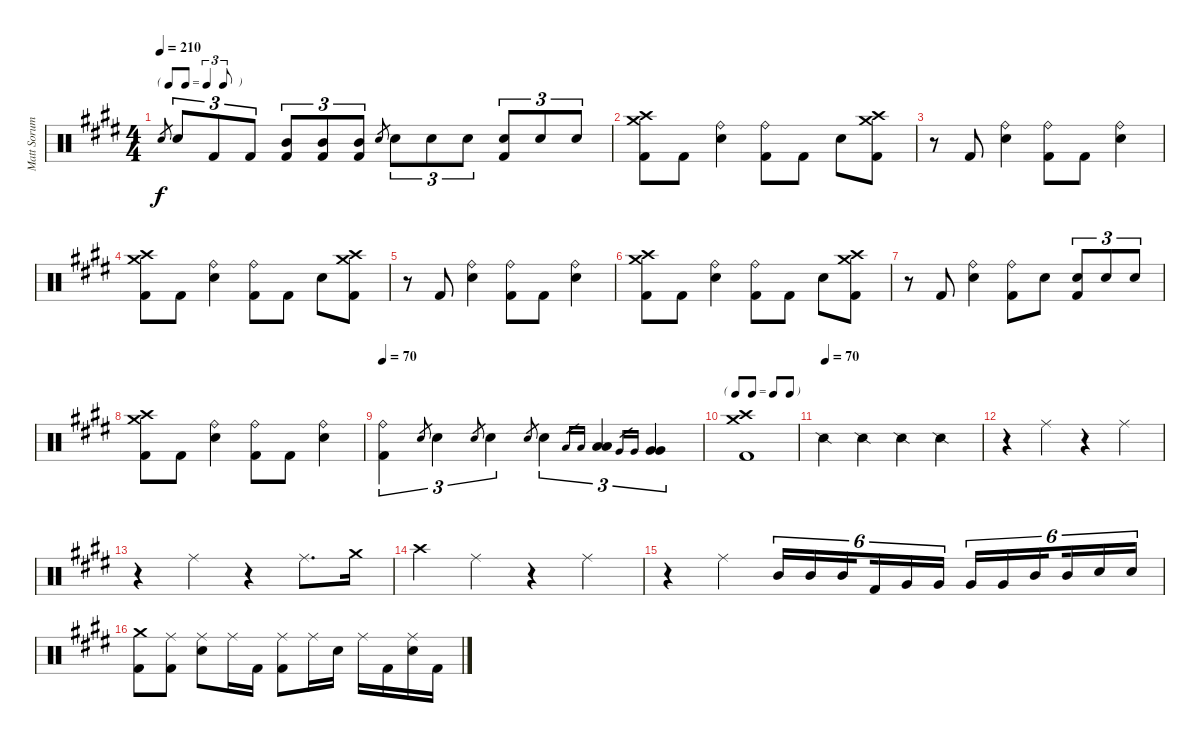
\track ("Matt Sorum - Drums" "Matt Sorum") {instrument percussion}
\staff {score}
\articulation defaults
\ts (4 4)
\tf triplet8th
\tempo 210
\clef neutral
\ks e "Snare (hit) 2".8{gr dy f} "Snare (hit) 2".8{tu (3 2)} "Kick (hit) 2".8{tu (3 2)} "Kick (hit) 2".8{tu (3 2)}
("Mid Tom (hit)" "Kick (hit) 2").8{tu (3 2)} ("Mid Tom (hit)" "Kick (hit) 2").8{tu (3 2)} ("Mid Tom (hit)" "Kick (hit) 2").8{tu (3 2)} "Snare (hit) 2".8{gr} "Snare (hit) 2".8{tu (3 2)} "Snare (hit) 2".8{tu (3 2)} "Snare (hit) 2".8{tu (3 2)} ("Snare (hit) 2" "Kick (hit) 2").8{tu (3 2)} "Snare (hit) 2".8{tu (3 2)} "Snare (hit) 2".8{tu (3 2)} |
("Crash medium (hit)" "Crash high (hit)" "Kick (hit) 2").8 "Kick (hit) 2".8 ("Ride (bell)" "Snare (hit) 2").4 ("Ride (bell)" "Kick (hit) 2").8 "Kick (hit) 2".8 "Snare (hit) 2".8 ("Crash medium (hit)" "Crash high (hit)" "Kick (hit) 2").8 |
r.8 "Kick (hit) 2".8 ("Ride (bell)" "Snare (hit) 2").4 ("Ride (bell)" "Kick (hit) 2").8 "Kick (hit) 2".8 ("Ride (bell)" "Snare (hit) 2").4 |
("Crash medium (hit)" "Crash high (hit)" "Kick (hit) 2").8 "Kick (hit) 2".8 ("Ride (bell)" "Snare (hit) 2").4 ("Ride (bell)" "Kick (hit) 2").8 "Kick (hit) 2".8 "Snare (hit) 2".8 ("Crash medium (hit)" "Crash high (hit)" "Kick (hit) 2").8 |
r.8 "Kick (hit) 2".8 ("Ride (bell)" "Snare (hit) 2").4 ("Ride (bell)" "Kick (hit) 2").8 "Kick (hit) 2".8 ("Ride (bell)" "Snare (hit) 2").4 |
("Crash medium (hit)" "Crash high (hit)" "Kick (hit) 2").8 "Kick (hit) 2".8 ("Ride (bell)" "Snare (hit) 2").4 ("Ride (bell)" "Kick (hit) 2").8 "Kick (hit) 2".8 "Snare (hit) 2".8 ("Crash medium (hit)" "Crash high (hit)" "Kick (hit) 2").8 |
r.8 "Kick (hit) 2".8 ("Ride (bell)" "Snare (hit) 2").4 ("Ride (bell)" "Kick (hit) 2").8 "Snare (hit) 2".8 ("Snare (hit) 2" "Kick (hit) 2").8{tu (3 2)} "Snare (hit) 2".8{tu (3 2)} "Snare (hit) 2".8{tu (3 2)} |
("Crash medium (hit)" "Crash high (hit)" "Kick (hit) 2").8 "Kick (hit) 2".8 ("Ride (bell)" "Snare (hit) 2").4 ("Ride (bell)" "Kick (hit) 2").8 "Kick (hit) 2".8 ("Ride (bell)" "Snare (hit) 2").4 |
\tempo 70
("Ride (bell)" "Kick (hit) 2").4{tu (3 2)} "Snare (hit) 2".8{gr} "Snare (hit) 2".4{tu (3 2)} "Snare (hit) 2".8{gr} "Snare (hit) 2".4{tu (3 2)} "Snare (hit) 2".8{gr} "Snare (hit) 2".4{tu (3 2)} "Low Tom (hit)".16{gr} "Low Tom (hit)".16{gr} ("Low Tom (hit)" "Low Tom (hit)").4{tu (3 2)} "Very Low Tom (hit)".16{gr} "Very Low Tom (hit)".16{gr} ("Very Low Tom (hit)" "Very Low Tom (hit)").4{tu (3 2)} |
\tf none
("Crash medium (hit)" "Crash high (hit)" "Kick (hit) 2").1 |
\tempo (70)
"Snare (side stick) 2".4 "Snare (side stick) 2".4 "Snare (side stick) 2".4 "Snare (side stick) 2".4 |
r.4 "Ride (middle)".4 r.4 "Ride (middle)".4 |
r.4 "Ride (middle)".4 r.4 "Ride (middle)".8{d} "Crash medium (hit)".16 |
"Crash high (hit)".4 "Ride (middle)".4 r.4 "Ride (middle)".4 |
r.4 "Ride (middle)".4 "Mid Tom (hit)".16{tu (6 4)} "Mid Tom (hit)".16{tu (6 4)} "Mid Tom (hit)".16{tu (6 4) beam splitsecondary} "Kick (hit) 2".16{tu (6 4)} "Very Low Tom (hit)".16{tu (6 4)} "Very Low Tom (hit)".16{tu (6 4)} "Very Low Tom (hit)".16{tu (6 4)} "Very Low Tom (hit)".16{tu (6 4)} "Mid Tom (hit)".16{tu (6 4) beam splitsecondary} "Mid Tom (hit)".16{tu (6 4)} "Snare (hit) 2".16{tu (6 4)} "Snare (hit) 2".16{tu (6 4)} |
("Crash medium (hit)" "Kick (hit) 2").8 ("Ride (middle)" "Kick (hit) 2").8 ("Ride (middle)" "Snare (hit) 2").8 "Ride (middle)".16 "Kick (hit) 2".16 ("Ride (middle)" "Kick (hit) 2").8 "Ride (middle)".16 "Snare (hit) 2".16 "Ride (middle)".16 "Kick (hit) 2".16 ("Ride (middle)" "Snare (hit) 2").16 "Kick (hit) 2".16
